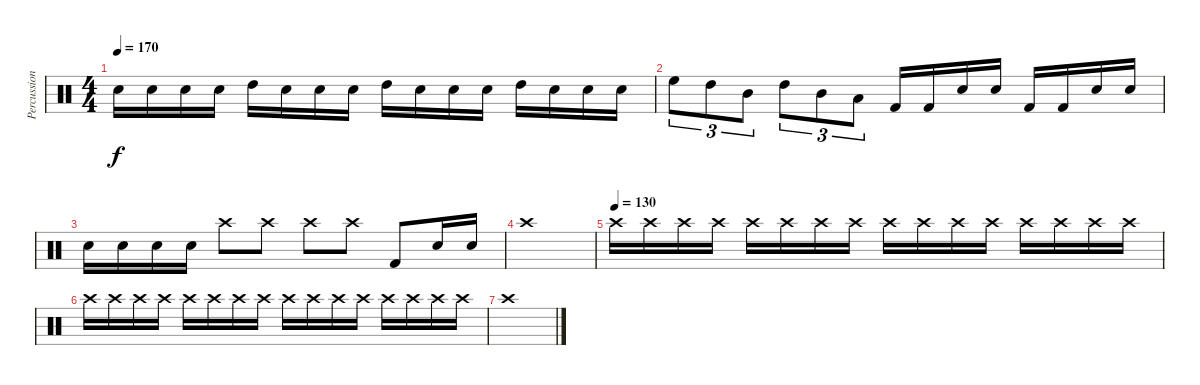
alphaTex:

\track ("Percussion" "Percussion") {instrument percussion}
\staff {score}
\articulation defaults
\ts (4 4)
\tempo 170
\clef neutral
\ks c "Snare (hit) 2".16{dy f} "Snare (hit) 2".16 "Snare (hit) 2".16 "Snare (hit) 2".16 "High Tom (hit)".16 "Snare (hit) 2".16 "Snare (hit) 2".16 "Snare (hit) 2".16 "High Tom (hit)".16 "Snare (hit) 2".16 "Snare (hit) 2".16 "Snare (hit) 2".16 "High Tom (hit)".16 "Snare (hit) 2".16 "Snare (hit) 2".16 "Snare (hit) 2".16
|
"High Floor Tom (hit)".8{tu (3 2)} "High Tom (hit)".8{tu (3 2)} "Mid Tom (hit)".8{tu (3 2)} "High Tom (hit)".8{tu (3 2)} "Mid Tom (hit)".8{tu (3 2)} "Low Tom (hit)".8{tu (3 2)} "Kick (hit) 2".16 "Kick (hit) 2".16 "Snare (hit) 2".16 "Snare (hit) 2".16 "Kick (hit) 2".16 "Kick (hit) 2".16 "Snare (hit) 2".16 "Snare (hit) 2".16 |
"Snare (hit) 2".16 "Snare (hit) 2".16 "Snare (hit) 2".16 "Snare (hit) 2".16 "Crash high (hit)".8 "Crash high (hit)".8 "Crash high (hit)".8 "Crash high (hit)".8 "Kick (hit) 2".8 "Snare (hit) 2".16 "Snare (hit) 2".16 |
"Crash high (hit)".1 |
\tempo (130)
"Crash high (hit)".16 "Crash high (hit)".16 "Crash high (hit)".16 "Crash high (hit)".16 "Crash high (hit)".16 "Crash high (hit)".16 "Crash high (hit)".16 "Crash high (hit)".16 "Crash high (hit)".16 "Crash high (hit)".16 "Crash high (hit)".16 "Crash high (hit)".16 "Crash high (hit)".16 "Crash high (hit)".16 "Crash high (hit)".16 "Crash high (hit)".16 |
"Crash high (hit)".16 "Crash high (hit)".16 "Crash high (hit)".16 "Crash high (hit)".16 "Crash high (hit)".16 "Crash high (hit)".16 "Crash high (hit)".16 "Crash high (hit)".16 "Crash high (hit)".16 "Crash high (hit)".16 "Crash high (hit)".16 "Crash high (hit)".16 "Crash high (hit)".16 "Crash high (hit)".16 "Crash high (hit)".16 "Crash high (hit)".16 |
"Crash high (hit)".1
